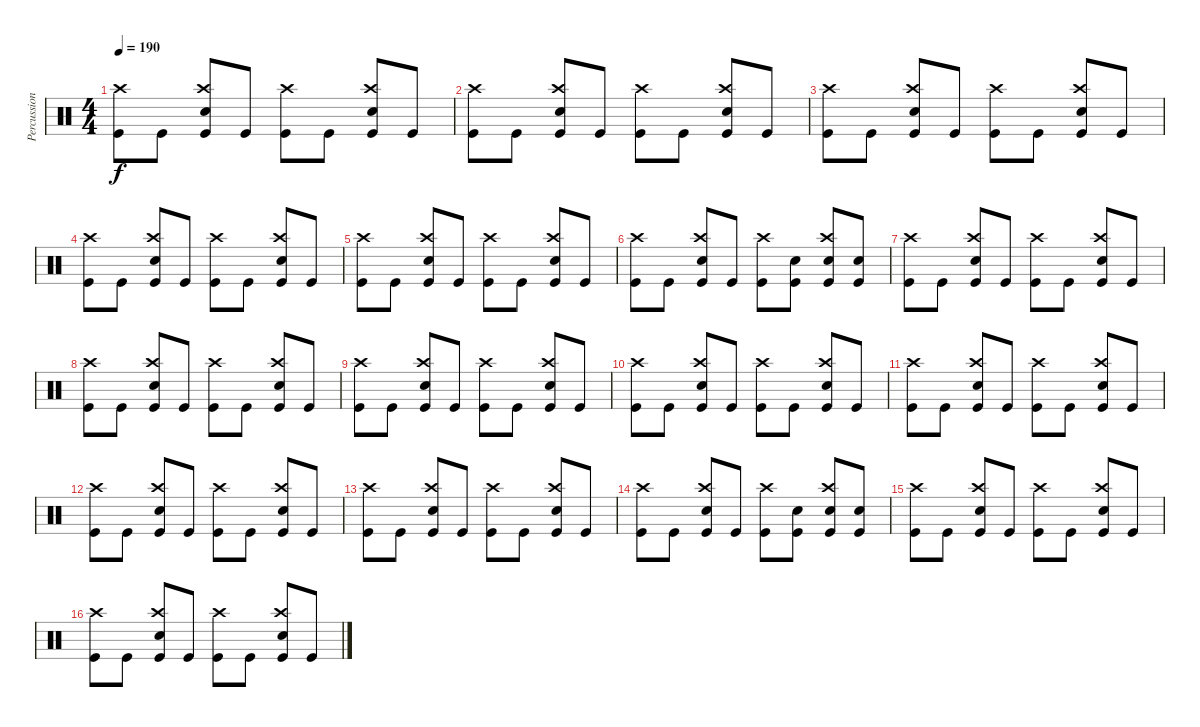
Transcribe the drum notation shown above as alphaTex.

\track ("Percussion" "Percussion") {instrument percussion}
\staff {score}
\articulation defaults
\ts (4 4)
\tempo 190
\clef neutral
\ks c
("Kick (hit)" "Crash high (hit)").8{dy f} "Kick (hit)".8 ("Kick (hit)" "Electric Snare (hit)" "Crash high (hit)").8 "Kick (hit)".8 ("Kick (hit)" "Crash high (hit)").8 "Kick (hit)".8 ("Kick (hit)" "Electric Snare (hit)" "Crash high (hit)").8 "Kick (hit)".8 |
("Kick (hit)" "Crash high (hit)").8 "Kick (hit)".8 ("Kick (hit)" "Electric Snare (hit)" "Crash high (hit)").8 "Kick (hit)".8 ("Kick (hit)" "Crash high (hit)").8 "Kick (hit)".8 ("Kick (hit)" "Electric Snare (hit)" "Crash high (hit)").8 "Kick (hit)".8 |
("Kick (hit)" "Crash high (hit)").8 "Kick (hit)".8 ("Kick (hit)" "Electric Snare (hit)" "Crash high (hit)").8 "Kick (hit)".8 ("Kick (hit)" "Crash high (hit)").8 "Kick (hit)".8 ("Kick (hit)" "Electric Snare (hit)" "Crash high (hit)").8 "Kick (hit)".8 |
("Kick (hit)" "Crash high (hit)").8 "Kick (hit)".8 ("Kick (hit)" "Electric Snare (hit)" "Crash high (hit)").8 "Kick (hit)".8 ("Kick (hit)" "Crash high (hit)").8 "Kick (hit)".8 ("Kick (hit)" "Electric Snare (hit)" "Crash high (hit)").8 "Kick (hit)".8 |
("Kick (hit)" "Crash high (hit)").8 "Kick (hit)".8 ("Kick (hit)" "Electric Snare (hit)" "Crash high (hit)").8 "Kick (hit)".8 ("Kick (hit)" "Crash high (hit)").8 "Kick (hit)".8 ("Kick (hit)" "Electric Snare (hit)" "Crash high (hit)").8 "Kick (hit)".8 |
("Kick (hit)" "Crash high (hit)").8 "Kick (hit)".8 ("Kick (hit)" "Electric Snare (hit)" "Crash high (hit)").8 "Kick (hit)".8 ("Kick (hit)" "Crash high (hit)").8 ("Kick (hit)" "Electric Snare (hit)").8 ("Kick (hit)" "Electric Snare (hit)" "Crash high (hit)").8 ("Kick (hit)" "Electric Snare (hit)").8 |
("Kick (hit)" "Crash high (hit)").8 "Kick (hit)".8 ("Kick (hit)" "Electric Snare (hit)" "Crash high (hit)").8 "Kick (hit)".8 ("Kick (hit)" "Crash high (hit)").8 "Kick (hit)".8 ("Kick (hit)" "Electric Snare (hit)" "Crash high (hit)").8 "Kick (hit)".8 |
("Kick (hit)" "Crash high (hit)").8 "Kick (hit)".8 ("Kick (hit)" "Electric Snare (hit)" "Crash high (hit)").8 "Kick (hit)".8 ("Kick (hit)" "Crash high (hit)").8 "Kick (hit)".8 ("Kick (hit)" "Electric Snare (hit)" "Crash high (hit)").8 "Kick (hit)".8 |
("Kick (hit)" "Crash high (hit)").8 "Kick (hit)".8 ("Kick (hit)" "Electric Snare (hit)" "Crash high (hit)").8 "Kick (hit)".8 ("Kick (hit)" "Crash high (hit)").8 "Kick (hit)".8 ("Kick (hit)" "Electric Snare (hit)" "Crash high (hit)").8 "Kick (hit)".8 |
("Kick (hit)" "Crash high (hit)").8 "Kick (hit)".8 ("Kick (hit)" "Electric Snare (hit)" "Crash high (hit)").8 "Kick (hit)".8 ("Kick (hit)" "Crash high (hit)").8 "Kick (hit)".8 ("Kick (hit)" "Electric Snare (hit)" "Crash high (hit)").8 "Kick (hit)".8 |
("Kick (hit)" "Crash high (hit)").8 "Kick (hit)".8 ("Kick (hit)" "Electric Snare (hit)" "Crash high (hit)").8 "Kick (hit)".8 ("Kick (hit)" "Crash high (hit)").8 "Kick (hit)".8 ("Kick (hit)" "Electric Snare (hit)" "Crash high (hit)").8 "Kick (hit)".8 |
("Kick (hit)" "Crash high (hit)").8 "Kick (hit)".8 ("Kick (hit)" "Electric Snare (hit)" "Crash high (hit)").8 "Kick (hit)".8 ("Kick (hit)" "Crash high (hit)").8 "Kick (hit)".8 ("Kick (hit)" "Electric Snare (hit)" "Crash high (hit)").8 "Kick (hit)".8 |
("Kick (hit)" "Crash high (hit)").8 "Kick (hit)".8 ("Kick (hit)" "Electric Snare (hit)" "Crash high (hit)").8 "Kick (hit)".8 ("Kick (hit)" "Crash high (hit)").8 "Kick (hit)".8 ("Kick (hit)" "Electric Snare (hit)" "Crash high (hit)").8 "Kick (hit)".8 |
("Kick (hit)" "Crash high (hit)").8 "Kick (hit)".8 ("Kick (hit)" "Electric Snare (hit)" "Crash high (hit)").8 "Kick (hit)".8 ("Kick (hit)" "Crash high (hit)").8 ("Kick (hit)" "Electric Snare (hit)").8 ("Kick (hit)" "Electric Snare (hit)" "Crash high (hit)").8 ("Kick (hit)" "Electric Snare (hit)").8 |
("Kick (hit)" "Crash high (hit)").8 "Kick (hit)".8 ("Kick (hit)" "Electric Snare (hit)" "Crash high (hit)").8 "Kick (hit)".8 ("Kick (hit)" "Crash high (hit)").8 "Kick (hit)".8 ("Kick (hit)" "Electric Snare (hit)" "Crash high (hit)").8 "Kick (hit)".8 |
("Kick (hit)" "Crash high (hit)").8 "Kick (hit)".8 ("Kick (hit)" "Electric Snare (hit)" "Crash high (hit)").8 "Kick (hit)".8 ("Kick (hit)" "Crash high (hit)").8 "Kick (hit)".8 ("Kick (hit)" "Electric Snare (hit)" "Crash high (hit)").8 "Kick (hit)".8
